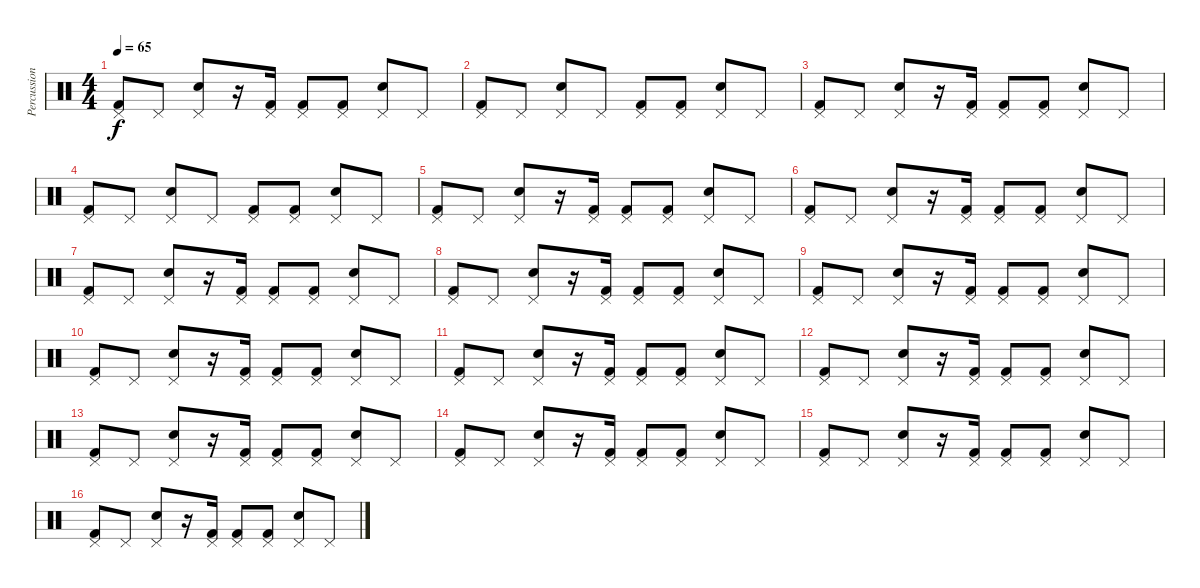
\track ("Percussion" "Percussion") {instrument percussion}
\staff {score}
\articulation defaults
\ts (4 4)
\tempo 65
\clef neutral
\ks c
("Pedal Hi-Hat (hit)" "Kick (hit) 2").8{dy f} "Pedal Hi-Hat (hit)".8 ("Pedal Hi-Hat (hit)" "Snare (hit) 2").8 r.16 ("Pedal Hi-Hat (hit)" "Kick (hit) 2").16 ("Pedal Hi-Hat (hit)" "Kick (hit) 2").8 ("Pedal Hi-Hat (hit)" "Kick (hit) 2").8 ("Pedal Hi-Hat (hit)" "Snare (hit) 2").8 "Pedal Hi-Hat (hit)".8 |
("Pedal Hi-Hat (hit)" "Kick (hit) 2").8 "Pedal Hi-Hat (hit)".8 ("Pedal Hi-Hat (hit)" "Snare (hit) 2").8 "Pedal Hi-Hat (hit)".8 ("Pedal Hi-Hat (hit)" "Kick (hit) 2").8 ("Pedal Hi-Hat (hit)" "Kick (hit) 2").8 ("Pedal Hi-Hat (hit)" "Snare (hit) 2").8 "Pedal Hi-Hat (hit)".8 |
("Pedal Hi-Hat (hit)" "Kick (hit) 2").8 "Pedal Hi-Hat (hit)".8 ("Pedal Hi-Hat (hit)" "Snare (hit) 2").8 r.16 ("Pedal Hi-Hat (hit)" "Kick (hit) 2").16 ("Pedal Hi-Hat (hit)" "Kick (hit) 2").8 ("Pedal Hi-Hat (hit)" "Kick (hit) 2").8 ("Pedal Hi-Hat (hit)" "Snare (hit) 2").8 "Pedal Hi-Hat (hit)".8 |
("Pedal Hi-Hat (hit)" "Kick (hit) 2").8 "Pedal Hi-Hat (hit)".8 ("Pedal Hi-Hat (hit)" "Snare (hit) 2").8 "Pedal Hi-Hat (hit)".8 ("Pedal Hi-Hat (hit)" "Kick (hit) 2").8 ("Pedal Hi-Hat (hit)" "Kick (hit) 2").8 ("Pedal Hi-Hat (hit)" "Snare (hit) 2").8 "Pedal Hi-Hat (hit)".8 |
("Pedal Hi-Hat (hit)" "Kick (hit) 2").8 "Pedal Hi-Hat (hit)".8 ("Pedal Hi-Hat (hit)" "Snare (hit) 2").8 r.16 ("Pedal Hi-Hat (hit)" "Kick (hit) 2").16 ("Pedal Hi-Hat (hit)" "Kick (hit) 2").8 ("Pedal Hi-Hat (hit)" "Kick (hit) 2").8 ("Pedal Hi-Hat (hit)" "Snare (hit) 2").8 "Pedal Hi-Hat (hit)".8 |
("Pedal Hi-Hat (hit)" "Kick (hit) 2").8 "Pedal Hi-Hat (hit)".8 ("Pedal Hi-Hat (hit)" "Snare (hit) 2").8 r.16 ("Pedal Hi-Hat (hit)" "Kick (hit) 2").16 ("Pedal Hi-Hat (hit)" "Kick (hit) 2").8 ("Pedal Hi-Hat (hit)" "Kick (hit) 2").8 ("Pedal Hi-Hat (hit)" "Snare (hit) 2").8 "Pedal Hi-Hat (hit)".8 |
("Pedal Hi-Hat (hit)" "Kick (hit) 2").8 "Pedal Hi-Hat (hit)".8 ("Pedal Hi-Hat (hit)" "Snare (hit) 2").8 r.16 ("Pedal Hi-Hat (hit)" "Kick (hit) 2").16 ("Pedal Hi-Hat (hit)" "Kick (hit) 2").8 ("Pedal Hi-Hat (hit)" "Kick (hit) 2").8 ("Pedal Hi-Hat (hit)" "Snare (hit) 2").8 "Pedal Hi-Hat (hit)".8 |
("Pedal Hi-Hat (hit)" "Kick (hit) 2").8 "Pedal Hi-Hat (hit)".8 ("Pedal Hi-Hat (hit)" "Snare (hit) 2").8 r.16 ("Pedal Hi-Hat (hit)" "Kick (hit) 2").16 ("Pedal Hi-Hat (hit)" "Kick (hit) 2").8 ("Pedal Hi-Hat (hit)" "Kick (hit) 2").8 ("Pedal Hi-Hat (hit)" "Snare (hit) 2").8 "Pedal Hi-Hat (hit)".8 |
("Pedal Hi-Hat (hit)" "Kick (hit) 2").8 "Pedal Hi-Hat (hit)".8 ("Pedal Hi-Hat (hit)" "Snare (hit) 2").8 r.16 ("Pedal Hi-Hat (hit)" "Kick (hit) 2").16 ("Pedal Hi-Hat (hit)" "Kick (hit) 2").8 ("Pedal Hi-Hat (hit)" "Kick (hit) 2").8 ("Pedal Hi-Hat (hit)" "Snare (hit) 2").8 "Pedal Hi-Hat (hit)".8 |
("Pedal Hi-Hat (hit)" "Kick (hit) 2").8 "Pedal Hi-Hat (hit)".8 ("Pedal Hi-Hat (hit)" "Snare (hit) 2").8 r.16 ("Pedal Hi-Hat (hit)" "Kick (hit) 2").16 ("Pedal Hi-Hat (hit)" "Kick (hit) 2").8 ("Pedal Hi-Hat (hit)" "Kick (hit) 2").8 ("Pedal Hi-Hat (hit)" "Snare (hit) 2").8 "Pedal Hi-Hat (hit)".8 |
("Pedal Hi-Hat (hit)" "Kick (hit) 2").8 "Pedal Hi-Hat (hit)".8 ("Pedal Hi-Hat (hit)" "Snare (hit) 2").8 r.16 ("Pedal Hi-Hat (hit)" "Kick (hit) 2").16 ("Pedal Hi-Hat (hit)" "Kick (hit) 2").8 ("Pedal Hi-Hat (hit)" "Kick (hit) 2").8 ("Pedal Hi-Hat (hit)" "Snare (hit) 2").8 "Pedal Hi-Hat (hit)".8 |
("Pedal Hi-Hat (hit)" "Kick (hit) 2").8 "Pedal Hi-Hat (hit)".8 ("Pedal Hi-Hat (hit)" "Snare (hit) 2").8 r.16 ("Pedal Hi-Hat (hit)" "Kick (hit) 2").16 ("Pedal Hi-Hat (hit)" "Kick (hit) 2").8 ("Pedal Hi-Hat (hit)" "Kick (hit) 2").8 ("Pedal Hi-Hat (hit)" "Snare (hit) 2").8 "Pedal Hi-Hat (hit)".8 |
("Pedal Hi-Hat (hit)" "Kick (hit) 2").8 "Pedal Hi-Hat (hit)".8 ("Pedal Hi-Hat (hit)" "Snare (hit) 2").8 r.16 ("Pedal Hi-Hat (hit)" "Kick (hit) 2").16 ("Pedal Hi-Hat (hit)" "Kick (hit) 2").8 ("Pedal Hi-Hat (hit)" "Kick (hit) 2").8 ("Pedal Hi-Hat (hit)" "Snare (hit) 2").8 "Pedal Hi-Hat (hit)".8 |
("Pedal Hi-Hat (hit)" "Kick (hit) 2").8 "Pedal Hi-Hat (hit)".8 ("Pedal Hi-Hat (hit)" "Snare (hit) 2").8 r.16 ("Pedal Hi-Hat (hit)" "Kick (hit) 2").16 ("Pedal Hi-Hat (hit)" "Kick (hit) 2").8 ("Pedal Hi-Hat (hit)" "Kick (hit) 2").8 ("Pedal Hi-Hat (hit)" "Snare (hit) 2").8 "Pedal Hi-Hat (hit)".8 |
("Pedal Hi-Hat (hit)" "Kick (hit) 2").8 "Pedal Hi-Hat (hit)".8 ("Pedal Hi-Hat (hit)" "Snare (hit) 2").8 r.16 ("Pedal Hi-Hat (hit)" "Kick (hit) 2").16 ("Pedal Hi-Hat (hit)" "Kick (hit) 2").8 ("Pedal Hi-Hat (hit)" "Kick (hit) 2").8 ("Pedal Hi-Hat (hit)" "Snare (hit) 2").8 "Pedal Hi-Hat (hit)".8 |
("Pedal Hi-Hat (hit)" "Kick (hit) 2").8 "Pedal Hi-Hat (hit)".8 ("Pedal Hi-Hat (hit)" "Snare (hit) 2").8 r.16 ("Pedal Hi-Hat (hit)" "Kick (hit) 2").16 ("Pedal Hi-Hat (hit)" "Kick (hit) 2").8 ("Pedal Hi-Hat (hit)" "Kick (hit) 2").8 ("Pedal Hi-Hat (hit)" "Snare (hit) 2").8 "Pedal Hi-Hat (hit)".8
